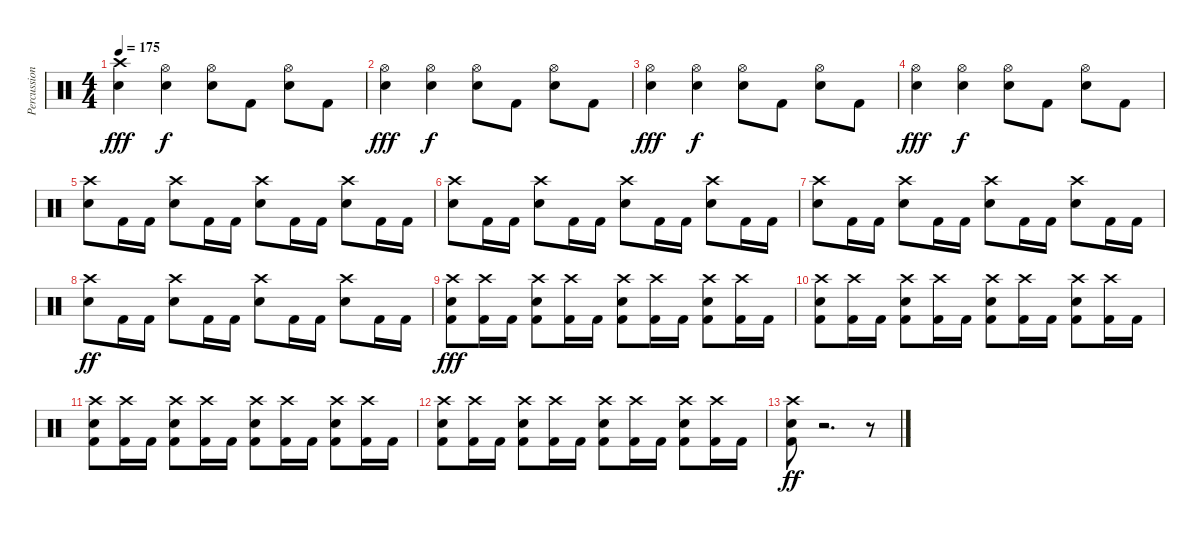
\track ("Percussion" "Percussion") {instrument percussion}
\staff {score}
\articulation defaults
\ts (4 4)
\tempo 175
\clef neutral
\ks c
("Crash high (hit)" "Snare (hit) 2").4{dy fff} ("Hi-Hat (open)" "Snare (hit) 2").4{dy f} ("Hi-Hat (open)" "Snare (hit) 2").8 "Kick (hit) 2".8 ("Hi-Hat (open)" "Snare (hit) 2").8 "Kick (hit) 2".8 |
("Hi-Hat (open)" "Snare (hit) 2").4{dy fff} ("Hi-Hat (open)" "Snare (hit) 2").4{dy f} ("Hi-Hat (open)" "Snare (hit) 2").8 "Kick (hit) 2".8 ("Hi-Hat (open)" "Snare (hit) 2").8 "Kick (hit) 2".8 |
("Hi-Hat (open)" "Snare (hit) 2").4{dy fff} ("Hi-Hat (open)" "Snare (hit) 2").4{dy f} ("Hi-Hat (open)" "Snare (hit) 2").8 "Kick (hit) 2".8 ("Hi-Hat (open)" "Snare (hit) 2").8 "Kick (hit) 2".8 |
("Hi-Hat (open)" "Snare (hit) 2").4{dy fff} ("Hi-Hat (open)" "Snare (hit) 2").4{dy f} ("Hi-Hat (open)" "Snare (hit) 2").8 "Kick (hit) 2".8 ("Hi-Hat (open)" "Snare (hit) 2").8 "Kick (hit) 2".8 |
("Crash high (hit)" "Snare (hit) 2").8 "Kick (hit) 2".16 "Kick (hit) 2".16 ("Crash high (hit)" "Snare (hit) 2").8 "Kick (hit) 2".16 "Kick (hit) 2".16 ("Crash high (hit)" "Snare (hit) 2").8 "Kick (hit) 2".16 "Kick (hit) 2".16 ("Crash high (hit)" "Snare (hit) 2").8 "Kick (hit) 2".16 "Kick (hit) 2".16 |
("Crash high (hit)" "Snare (hit) 2").8 "Kick (hit) 2".16 "Kick (hit) 2".16 ("Crash high (hit)" "Snare (hit) 2").8 "Kick (hit) 2".16 "Kick (hit) 2".16 ("Crash high (hit)" "Snare (hit) 2").8 "Kick (hit) 2".16 "Kick (hit) 2".16 ("Crash high (hit)" "Snare (hit) 2").8 "Kick (hit) 2".16 "Kick (hit) 2".16 |
("Crash high (hit)" "Snare (hit) 2").8 "Kick (hit) 2".16 "Kick (hit) 2".16 ("Crash high (hit)" "Snare (hit) 2").8 "Kick (hit) 2".16 "Kick (hit) 2".16 ("Crash high (hit)" "Snare (hit) 2").8 "Kick (hit) 2".16 "Kick (hit) 2".16 ("Crash high (hit)" "Snare (hit) 2").8 "Kick (hit) 2".16 "Kick (hit) 2".16 |
("Crash high (hit)" "Snare (hit) 2").8{dy ff} "Kick (hit) 2".16 "Kick (hit) 2".16 ("Crash high (hit)" "Snare (hit) 2").8 "Kick (hit) 2".16 "Kick (hit) 2".16 ("Crash high (hit)" "Snare (hit) 2").8 "Kick (hit) 2".16 "Kick (hit) 2".16 ("Crash high (hit)" "Snare (hit) 2").8 "Kick (hit) 2".16 "Kick (hit) 2".16 |
("Crash high (hit)" "Snare (hit) 2" "Kick (hit) 2").8{dy fff} ("Crash high (hit)" "Kick (hit) 2").16 "Kick (hit) 2".16 ("Crash high (hit)" "Snare (hit) 2" "Kick (hit) 2").8 ("Crash high (hit)" "Kick (hit) 2").16 "Kick (hit) 2".16 ("Crash high (hit)" "Snare (hit) 2" "Kick (hit) 2").8 ("Crash high (hit)" "Kick (hit) 2").16 "Kick (hit) 2".16 ("Crash high (hit)" "Snare (hit) 2" "Kick (hit) 2").8 ("Crash high (hit)" "Kick (hit) 2").16 "Kick (hit) 2".16 |
("Crash high (hit)" "Snare (hit) 2" "Kick (hit) 2").8 ("Crash high (hit)" "Kick (hit) 2").16 "Kick (hit) 2".16 ("Crash high (hit)" "Snare (hit) 2" "Kick (hit) 2").8 ("Crash high (hit)" "Kick (hit) 2").16 "Kick (hit) 2".16 ("Crash high (hit)" "Snare (hit) 2" "Kick (hit) 2").8 ("Crash high (hit)" "Kick (hit) 2").16 "Kick (hit) 2".16 ("Crash high (hit)" "Snare (hit) 2" "Kick (hit) 2").8 ("Crash high (hit)" "Kick (hit) 2").16 "Kick (hit) 2".16 |
("Crash high (hit)" "Snare (hit) 2" "Kick (hit) 2").8 ("Crash high (hit)" "Kick (hit) 2").16 "Kick (hit) 2".16 ("Crash high (hit)" "Snare (hit) 2" "Kick (hit) 2").8 ("Crash high (hit)" "Kick (hit) 2").16 "Kick (hit) 2".16 ("Crash high (hit)" "Snare (hit) 2" "Kick (hit) 2").8 ("Crash high (hit)" "Kick (hit) 2").16 "Kick (hit) 2".16 ("Crash high (hit)" "Snare (hit) 2" "Kick (hit) 2").8 ("Crash high (hit)" "Kick (hit) 2").16 "Kick (hit) 2".16 |
("Crash high (hit)" "Snare (hit) 2" "Kick (hit) 2").8 ("Crash high (hit)" "Kick (hit) 2").16 "Kick (hit) 2".16 ("Crash high (hit)" "Snare (hit) 2" "Kick (hit) 2").8 ("Crash high (hit)" "Kick (hit) 2").16 "Kick (hit) 2".16 ("Crash high (hit)" "Snare (hit) 2" "Kick (hit) 2").8 ("Crash high (hit)" "Kick (hit) 2").16 "Kick (hit) 2".16 ("Crash high (hit)" "Snare (hit) 2" "Kick (hit) 2").8 ("Crash high (hit)" "Kick (hit) 2").16 "Kick (hit) 2".16 |
("Crash high (hit)" "Snare (hit) 2" "Kick (hit) 2").8{dy ff} r.2{d} r.8
